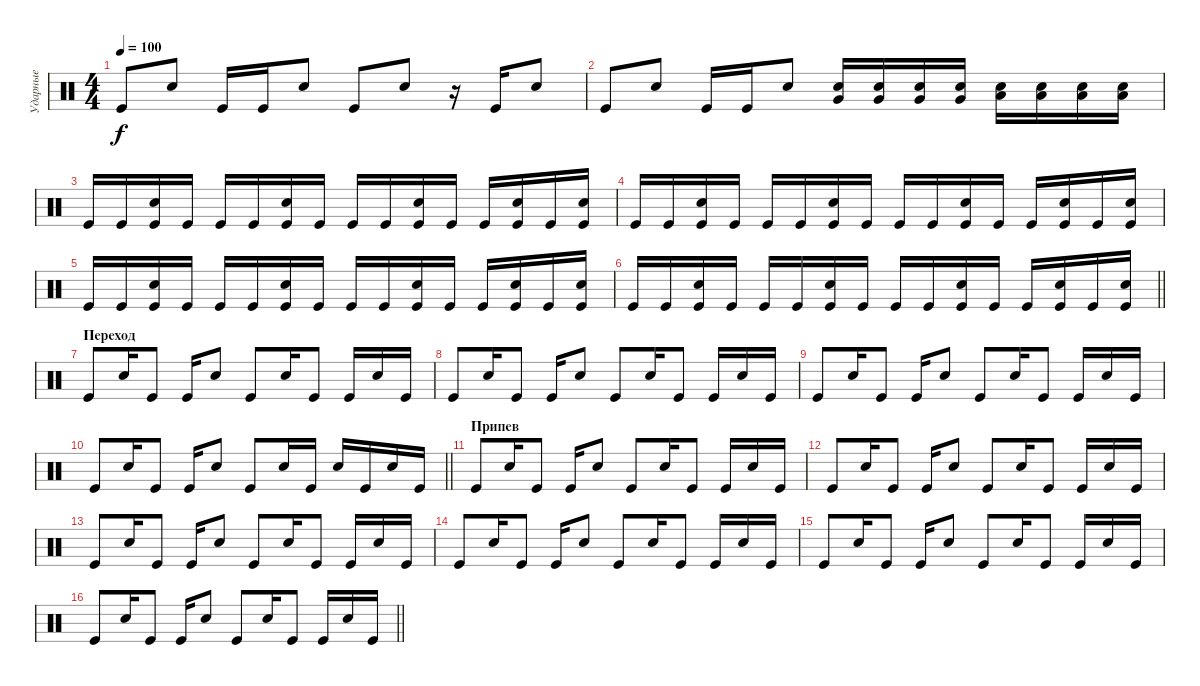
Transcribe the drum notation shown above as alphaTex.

\track ("Ударные" "Ударные") {instrument percussion}
\staff {score}
\articulation defaults
\ts (4 4)
\tempo 100
\clef neutral
\ks c "Kick (hit)".8{dy f} "Snare (hit) 2".8 "Kick (hit)".16 "Kick (hit)".16 "Snare (hit) 2".8 "Kick (hit)".8 "Snare (hit) 2".8
r.16 "Kick (hit)".16 "Snare (hit) 2".8 |
"Kick (hit)".8 "Snare (hit) 2".8 "Kick (hit)".16 "Kick (hit)".16 "Snare (hit) 2".8 ("Snare (hit) 2" "Very Low Tom (hit)").16 ("Snare (hit) 2" "Very Low Tom (hit)").16 ("Snare (hit) 2" "Very Low Tom (hit)").16 ("Snare (hit) 2" "Very Low Tom (hit)").16 ("Snare (hit) 2" "Low Floor Tom (hit)").16 ("Snare (hit) 2" "Low Floor Tom (hit)").16 ("Snare (hit) 2" "Low Floor Tom (hit)").16 ("Snare (hit) 2" "Low Floor Tom (hit)").16 |
"Kick (hit)".16 "Kick (hit)".16 ("Kick (hit)" "Snare (hit) 2").16 "Kick (hit)".16 "Kick (hit)".16 "Kick (hit)".16 ("Kick (hit)" "Snare (hit) 2").16 "Kick (hit)".16 "Kick (hit)".16 "Kick (hit)".16 ("Kick (hit)" "Snare (hit) 2").16 "Kick (hit)".16 "Kick (hit)".16 ("Kick (hit)" "Snare (hit) 2").16 "Kick (hit)".16 ("Kick (hit)" "Snare (hit) 2").16 |
"Kick (hit)".16 "Kick (hit)".16 ("Kick (hit)" "Snare (hit) 2").16 "Kick (hit)".16 "Kick (hit)".16 "Kick (hit)".16 ("Kick (hit)" "Snare (hit) 2").16 "Kick (hit)".16 "Kick (hit)".16 "Kick (hit)".16 ("Kick (hit)" "Snare (hit) 2").16 "Kick (hit)".16 "Kick (hit)".16 ("Kick (hit)" "Snare (hit) 2").16 "Kick (hit)".16 ("Kick (hit)" "Snare (hit) 2").16 |
"Kick (hit)".16 "Kick (hit)".16 ("Kick (hit)" "Snare (hit) 2").16 "Kick (hit)".16 "Kick (hit)".16 "Kick (hit)".16 ("Kick (hit)" "Snare (hit) 2").16 "Kick (hit)".16 "Kick (hit)".16 "Kick (hit)".16 ("Kick (hit)" "Snare (hit) 2").16 "Kick (hit)".16 "Kick (hit)".16 ("Kick (hit)" "Snare (hit) 2").16 "Kick (hit)".16 ("Kick (hit)" "Snare (hit) 2").16 |
\barLineRight lightlight "Kick (hit)".16 "Kick (hit)".16
("Kick (hit)" "Snare (hit) 2").16 "Kick (hit)".16 "Kick (hit)".16 "Kick (hit)".16 ("Kick (hit)" "Snare (hit) 2").16 "Kick (hit)".16 "Kick (hit)".16 "Kick (hit)".16 ("Kick (hit)" "Snare (hit) 2").16 "Kick (hit)".16 "Kick (hit)".16 ("Kick (hit)" "Snare (hit) 2").16 "Kick (hit)".16 ("Kick (hit)" "Snare (hit) 2").16 |
\section ("" "Переход")
"Kick (hit)".8 "Snare (hit) 2".16 "Kick (hit)".8 "Kick (hit)".16 "Snare (hit) 2".8 "Kick (hit)".8 "Snare (hit) 2".16 "Kick (hit)".8 "Kick (hit)".16 "Snare (hit) 2".16 "Kick (hit)".16 |
"Kick (hit)".8 "Snare (hit) 2".16 "Kick (hit)".8 "Kick (hit)".16 "Snare (hit) 2".8 "Kick (hit)".8 "Snare (hit) 2".16 "Kick (hit)".8 "Kick (hit)".16 "Snare (hit) 2".16 "Kick (hit)".16 |
"Kick (hit)".8 "Snare (hit) 2".16 "Kick (hit)".8 "Kick (hit)".16 "Snare (hit) 2".8 "Kick (hit)".8 "Snare (hit) 2".16 "Kick (hit)".8 "Kick (hit)".16 "Snare (hit) 2".16 "Kick (hit)".16 |
\barLineRight lightlight "Kick (hit)".8 "Snare (hit) 2".16 "Kick (hit)".8 "Kick (hit)".16 "Snare (hit) 2".8 "Kick (hit)".8 "Snare (hit) 2".16 "Kick (hit)".16 "Snare (hit) 2".16 "Kick (hit)".16 "Snare (hit) 2".16 "Kick (hit)".16
|
\section ("" "Припев")
"Kick (hit)".8 "Snare (hit) 2".16 "Kick (hit)".8 "Kick (hit)".16 "Snare (hit) 2".8 "Kick (hit)".8 "Snare (hit) 2".16 "Kick (hit)".8 "Kick (hit)".16 "Snare (hit) 2".16 "Kick (hit)".16 |
"Kick (hit)".8 "Snare (hit) 2".16 "Kick (hit)".8 "Kick (hit)".16 "Snare (hit) 2".8 "Kick (hit)".8 "Snare (hit) 2".16 "Kick (hit)".8 "Kick (hit)".16 "Snare (hit) 2".16 "Kick (hit)".16 |
"Kick (hit)".8 "Snare (hit) 2".16 "Kick (hit)".8 "Kick (hit)".16 "Snare (hit) 2".8 "Kick (hit)".8 "Snare (hit) 2".16 "Kick (hit)".8 "Kick (hit)".16 "Snare (hit) 2".16 "Kick (hit)".16 |
"Kick (hit)".8 "Snare (hit) 2".16 "Kick (hit)".8 "Kick (hit)".16 "Snare (hit) 2".8 "Kick (hit)".8 "Snare (hit) 2".16 "Kick (hit)".8 "Kick (hit)".16 "Snare (hit) 2".16 "Kick (hit)".16 |
"Kick (hit)".8 "Snare (hit) 2".16 "Kick (hit)".8 "Kick (hit)".16 "Snare (hit) 2".8 "Kick (hit)".8 "Snare (hit) 2".16 "Kick (hit)".8 "Kick (hit)".16 "Snare (hit) 2".16 "Kick (hit)".16 |
\barLineRight lightlight "Kick (hit)".8 "Snare (hit) 2".16 "Kick (hit)".8 "Kick (hit)".16 "Snare (hit) 2".8 "Kick (hit)".8 "Snare (hit) 2".16 "Kick (hit)".8 "Kick (hit)".16 "Snare (hit) 2".16 "Kick (hit)".16
